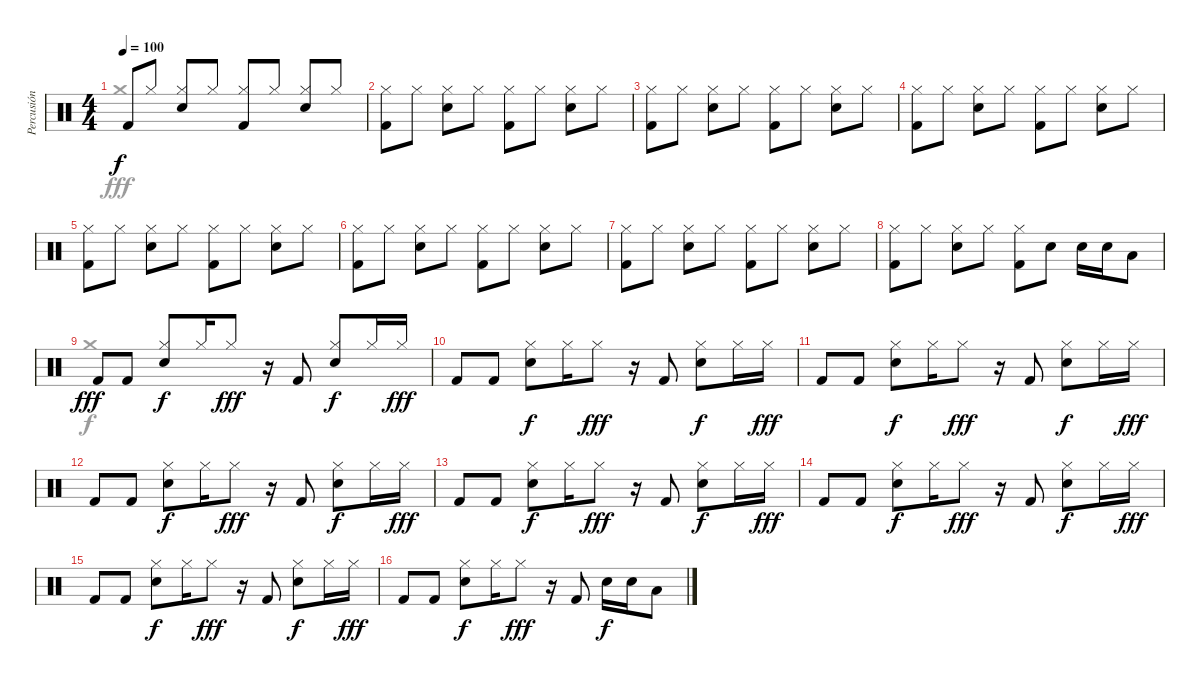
\track ("Percusión" "Percusión") {instrument percussion}
\staff {score}
\articulation defaults
\voice
\ts (4 4)
\tempo 100
\clef neutral
\ks c "Kick (hit) 2".8{dy f} "Hi-Hat (closed)".8
("Hi-Hat (closed)" "Electric Snare (hit)").8 "Hi-Hat (closed)".8 ("Hi-Hat (closed)" "Kick (hit) 2").8 "Hi-Hat (closed)".8 ("Hi-Hat (closed)" "Electric Snare (hit)").8 "Hi-Hat (closed)".8 |
("Hi-Hat (closed)" "Kick (hit) 2").8 "Hi-Hat (closed)".8 ("Hi-Hat (closed)" "Electric Snare (hit)").8 "Hi-Hat (closed)".8 ("Hi-Hat (closed)" "Kick (hit) 2").8 "Hi-Hat (closed)".8 ("Hi-Hat (closed)" "Electric Snare (hit)").8 "Hi-Hat (closed)".8 |
("Hi-Hat (closed)" "Kick (hit) 2").8 "Hi-Hat (closed)".8 ("Hi-Hat (closed)" "Electric Snare (hit)").8 "Hi-Hat (closed)".8 ("Hi-Hat (closed)" "Kick (hit) 2").8 "Hi-Hat (closed)".8 ("Hi-Hat (closed)" "Electric Snare (hit)").8 "Hi-Hat (closed)".8 |
("Hi-Hat (closed)" "Kick (hit) 2").8 "Hi-Hat (closed)".8 ("Hi-Hat (closed)" "Electric Snare (hit)").8 "Hi-Hat (closed)".8 ("Hi-Hat (closed)" "Kick (hit) 2").8 "Hi-Hat (closed)".8 ("Hi-Hat (closed)" "Electric Snare (hit)").8 "Hi-Hat (closed)".8 |
("Hi-Hat (closed)" "Kick (hit) 2").8 "Hi-Hat (closed)".8 ("Hi-Hat (closed)" "Electric Snare (hit)").8 "Hi-Hat (closed)".8 ("Hi-Hat (closed)" "Kick (hit) 2").8 "Hi-Hat (closed)".8 ("Hi-Hat (closed)" "Electric Snare (hit)").8 "Hi-Hat (closed)".8 |
("Hi-Hat (closed)" "Kick (hit) 2").8 "Hi-Hat (closed)".8 ("Hi-Hat (closed)" "Electric Snare (hit)").8 "Hi-Hat (closed)".8 ("Hi-Hat (closed)" "Kick (hit) 2").8 "Hi-Hat (closed)".8 ("Hi-Hat (closed)" "Electric Snare (hit)").8 "Hi-Hat (closed)".8 |
("Hi-Hat (closed)" "Kick (hit) 2").8 "Hi-Hat (closed)".8 ("Hi-Hat (closed)" "Electric Snare (hit)").8 "Hi-Hat (closed)".8 ("Hi-Hat (closed)" "Kick (hit) 2").8 "Hi-Hat (closed)".8 ("Hi-Hat (closed)" "Electric Snare (hit)").8 "Hi-Hat (closed)".8 |
("Hi-Hat (closed)" "Kick (hit) 2").8 "Hi-Hat (closed)".8 ("Hi-Hat (closed)" "Electric Snare (hit)").8 "Hi-Hat (closed)".8 ("Hi-Hat (closed)" "Kick (hit) 2").8 "Electric Snare (hit)".8 "Electric Snare (hit)".16 "Electric Snare (hit)".16 "Low Tom (hit)".8 |
"Kick (hit) 2".8{dy fff} "Kick (hit) 2".8 ("Hi-Hat (closed)" "Electric Snare (hit)").8{dy f} "Hi-Hat (closed)".16 "Hi-Hat (closed)".8{dy fff} r.16 "Kick (hit) 2".8 ("Hi-Hat (closed)" "Electric Snare (hit)").8{dy f} "Hi-Hat (closed)".16 "Hi-Hat (closed)".16{dy fff} |
"Kick (hit) 2".8 "Kick (hit) 2".8 ("Hi-Hat (closed)" "Electric Snare (hit)").8{dy f} "Hi-Hat (closed)".16 "Hi-Hat (closed)".8{dy fff} r.16 "Kick (hit) 2".8 ("Hi-Hat (closed)" "Electric Snare (hit)").8{dy f} "Hi-Hat (closed)".16 "Hi-Hat (closed)".16{dy fff} |
"Kick (hit) 2".8 "Kick (hit) 2".8 ("Hi-Hat (closed)" "Electric Snare (hit)").8{dy f} "Hi-Hat (closed)".16 "Hi-Hat (closed)".8{dy fff} r.16 "Kick (hit) 2".8 ("Hi-Hat (closed)" "Electric Snare (hit)").8{dy f} "Hi-Hat (closed)".16 "Hi-Hat (closed)".16{dy fff} |
"Kick (hit) 2".8 "Kick (hit) 2".8 ("Hi-Hat (closed)" "Electric Snare (hit)").8{dy f} "Hi-Hat (closed)".16 "Hi-Hat (closed)".8{dy fff} r.16 "Kick (hit) 2".8 ("Hi-Hat (closed)" "Electric Snare (hit)").8{dy f} "Hi-Hat (closed)".16 "Hi-Hat (closed)".16{dy fff} |
"Kick (hit) 2".8 "Kick (hit) 2".8 ("Hi-Hat (closed)" "Electric Snare (hit)").8{dy f} "Hi-Hat (closed)".16 "Hi-Hat (closed)".8{dy fff} r.16 "Kick (hit) 2".8 ("Hi-Hat (closed)" "Electric Snare (hit)").8{dy f} "Hi-Hat (closed)".16 "Hi-Hat (closed)".16{dy fff} |
"Kick (hit) 2".8 "Kick (hit) 2".8 ("Hi-Hat (closed)" "Electric Snare (hit)").8{dy f} "Hi-Hat (closed)".16 "Hi-Hat (closed)".8{dy fff} r.16 "Kick (hit) 2".8 ("Hi-Hat (closed)" "Electric Snare (hit)").8{dy f} "Hi-Hat (closed)".16 "Hi-Hat (closed)".16{dy fff} |
"Kick (hit) 2".8 "Kick (hit) 2".8 ("Hi-Hat (closed)" "Electric Snare (hit)").8{dy f} "Hi-Hat (closed)".16 "Hi-Hat (closed)".8{dy fff} r.16 "Kick (hit) 2".8 ("Hi-Hat (closed)" "Electric Snare (hit)").8{dy f} "Hi-Hat (closed)".16 "Hi-Hat (closed)".16{dy fff} |
"Kick (hit) 2".8 "Kick (hit) 2".8 ("Hi-Hat (closed)" "Electric Snare (hit)").8{dy f} "Hi-Hat (closed)".16 "Hi-Hat (closed)".8{dy fff} r.16 "Kick (hit) 2".8 "Electric Snare (hit)".16{dy f} "Electric Snare (hit)".16 "Low Tom (hit)".8
\voice
\clef neutral
\ottava regular
\simile none
\ks c "Crash medium (hit)".1{dy fff}
|
|
|
|
|
|
|
|
"Crash medium (hit)".1{dy f} |
|
|
|
|
|
|
